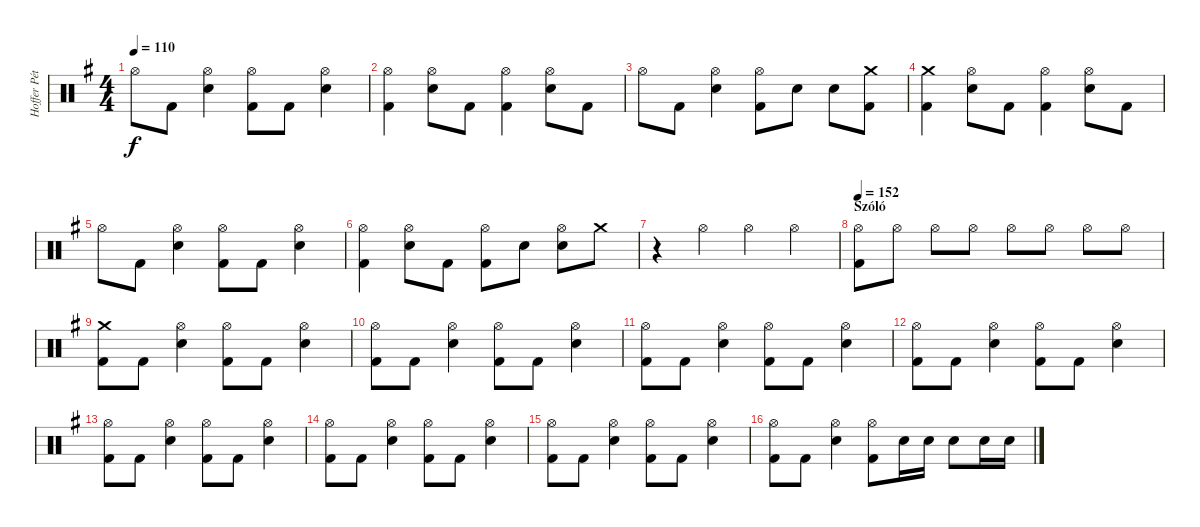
\track ("Hoffer Péter" "Hoffer Pét") {instrument percussion}
\staff {score}
\articulation defaults
\ts (4 4)
\tempo 110
\clef neutral
\ks eminor "Hi-Hat (open)".8{dy f} "Kick (hit) 2".8
("Hi-Hat (open)" "Snare (hit) 2").4 ("Hi-Hat (open)" "Kick (hit) 2").8 "Kick (hit) 2".8 ("Hi-Hat (open)" "Snare (hit) 2").4 |
("Hi-Hat (open)" "Kick (hit) 2").4 ("Hi-Hat (open)" "Snare (hit) 2").8 "Kick (hit) 2".8 ("Hi-Hat (open)" "Kick (hit) 2").4 ("Hi-Hat (open)" "Snare (hit) 2").8 "Kick (hit) 2".8 |
"Hi-Hat (open)".8 "Kick (hit) 2".8 ("Hi-Hat (open)" "Snare (hit) 2").4 ("Hi-Hat (open)" "Kick (hit) 2").8 "Snare (hit) 2".8 "Snare (hit) 2".8 ("Crash medium (hit)" "Kick (hit) 2").8 |
("Crash medium (hit)" "Kick (hit) 2").4 ("Hi-Hat (open)" "Snare (hit) 2").8 "Kick (hit) 2".8 ("Hi-Hat (open)" "Kick (hit) 2").4 ("Hi-Hat (open)" "Snare (hit) 2").8 "Kick (hit) 2".8 |
"Hi-Hat (open)".8 "Kick (hit) 2".8 ("Hi-Hat (open)" "Snare (hit) 2").4 ("Hi-Hat (open)" "Kick (hit) 2").8 "Kick (hit) 2".8 ("Hi-Hat (open)" "Snare (hit) 2").4 |
("Hi-Hat (open)" "Kick (hit) 2").4 ("Hi-Hat (open)" "Snare (hit) 2").8 "Kick (hit) 2".8 ("Hi-Hat (open)" "Kick (hit) 2").8 "Snare (hit) 2".8 ("Hi-Hat (open)" "Snare (hit) 2").8 "Crash medium (hit)".8 |
r.4 "Hi-Hat (open)".4 "Hi-Hat (open)".4 "Hi-Hat (open)".4 |
\section ("" "Szóló")
\tempo 152
("Hi-Hat (open)" "Kick (hit) 2").8 "Hi-Hat (open)".8 "Hi-Hat (open)".8 "Hi-Hat (open)".8 "Hi-Hat (open)".8 "Hi-Hat (open)".8 "Hi-Hat (open)".8 "Hi-Hat (open)".8 |
("Crash medium (hit)" "Kick (hit) 2").8 "Kick (hit) 2".8 ("Hi-Hat (open)" "Snare (hit) 2").4 ("Hi-Hat (open)" "Kick (hit) 2").8 "Kick (hit) 2".8 ("Hi-Hat (open)" "Snare (hit) 2").4 |
("Hi-Hat (open)" "Kick (hit) 2").8 "Kick (hit) 2".8 ("Hi-Hat (open)" "Snare (hit) 2").4 ("Hi-Hat (open)" "Kick (hit) 2").8 "Kick (hit) 2".8 ("Hi-Hat (open)" "Snare (hit) 2").4 |
("Hi-Hat (open)" "Kick (hit) 2").8 "Kick (hit) 2".8 ("Hi-Hat (open)" "Snare (hit) 2").4 ("Hi-Hat (open)" "Kick (hit) 2").8 "Kick (hit) 2".8 ("Hi-Hat (open)" "Snare (hit) 2").4 |
("Hi-Hat (open)" "Kick (hit) 2").8 "Kick (hit) 2".8 ("Hi-Hat (open)" "Snare (hit) 2").4 ("Hi-Hat (open)" "Kick (hit) 2").8 "Kick (hit) 2".8 ("Hi-Hat (open)" "Snare (hit) 2").4 |
("Hi-Hat (open)" "Kick (hit) 2").8 "Kick (hit) 2".8 ("Hi-Hat (open)" "Snare (hit) 2").4 ("Hi-Hat (open)" "Kick (hit) 2").8 "Kick (hit) 2".8 ("Hi-Hat (open)" "Snare (hit) 2").4 |
("Hi-Hat (open)" "Kick (hit) 2").8 "Kick (hit) 2".8 ("Hi-Hat (open)" "Snare (hit) 2").4 ("Hi-Hat (open)" "Kick (hit) 2").8 "Kick (hit) 2".8 ("Hi-Hat (open)" "Snare (hit) 2").4 |
("Hi-Hat (open)" "Kick (hit) 2").8 "Kick (hit) 2".8 ("Hi-Hat (open)" "Snare (hit) 2").4 ("Hi-Hat (open)" "Kick (hit) 2").8 "Kick (hit) 2".8 ("Hi-Hat (open)" "Snare (hit) 2").4 |
("Hi-Hat (open)" "Kick (hit) 2").8 "Kick (hit) 2".8 ("Hi-Hat (open)" "Snare (hit) 2").4 ("Hi-Hat (open)" "Kick (hit) 2").8 "Snare (hit) 2".16 "Snare (hit) 2".16 "Snare (hit) 2".8 "Snare (hit) 2".16 "Snare (hit) 2".16
